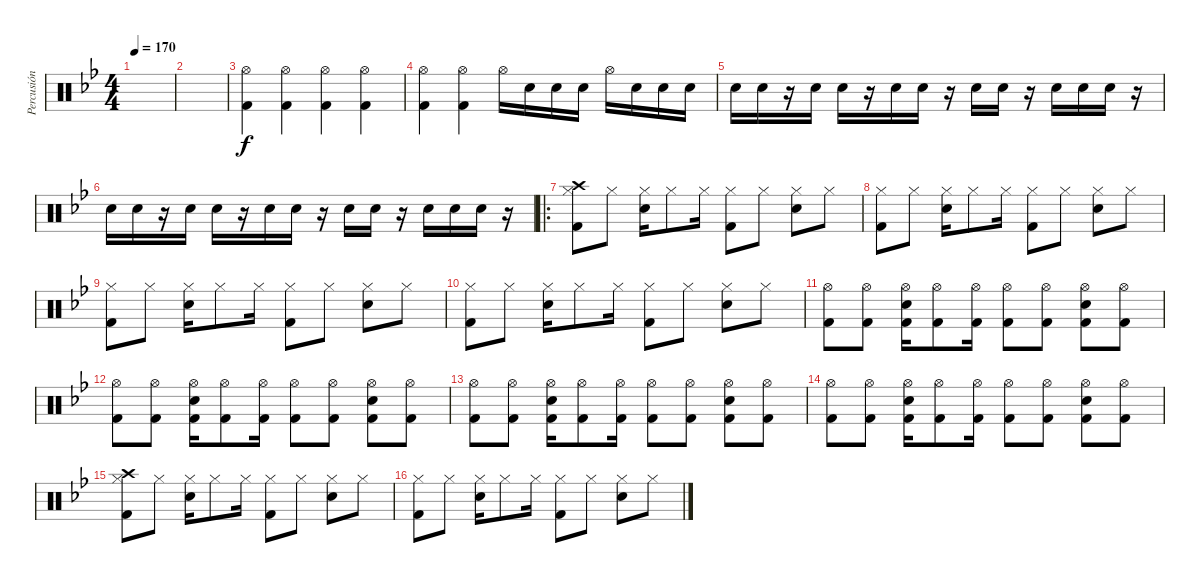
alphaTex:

\track ("Percusión" "Percusión") {instrument percussion}
\staff {score}
\articulation defaults
\ts (4 4)
\tempo 170
\clef neutral
\ks bb
|
|
("Hi-Hat (open)" "Kick (hit) 2").4 ("Hi-Hat (open)" "Kick (hit) 2").4 ("Hi-Hat (open)" "Kick (hit) 2").4 ("Hi-Hat (open)" "Kick (hit) 2").4 |
("Hi-Hat (open)" "Kick (hit) 2").4 ("Hi-Hat (open)" "Kick (hit) 2").4 "Hi-Hat (open)".16 "Electric Snare (hit)".16 "Electric Snare (hit)".16 "Electric Snare (hit)".16 "Hi-Hat (open)".16 "Electric Snare (hit)".16 "Electric Snare (hit)".16 "Electric Snare (hit)".16 |
"Electric Snare (hit)".16 "Electric Snare (hit)".16 r.16 "Electric Snare (hit)".16 "Electric Snare (hit)".16 r.16 "Electric Snare (hit)".16 "Electric Snare (hit)".16 r.16 "Electric Snare (hit)".16 "Electric Snare (hit)".16 r.16 "Electric Snare (hit)".16 "Electric Snare (hit)".16 "Electric Snare (hit)".16 r.16 |
"Electric Snare (hit)".16 "Electric Snare (hit)".16 r.16 "Electric Snare (hit)".16 "Electric Snare (hit)".16 r.16 "Electric Snare (hit)".16 "Electric Snare (hit)".16 r.16 "Electric Snare (hit)".16 "Electric Snare (hit)".16 r.16 "Electric Snare (hit)".16 "Electric Snare (hit)".16 "Electric Snare (hit)".16 r.16 |
\ro
("Crash high (hit)" "Hi-Hat (closed)" "Kick (hit) 2").8 "Hi-Hat (closed)".8 ("Electric Snare (hit)" "Hi-Hat (closed)").16 "Hi-Hat (closed)".8 "Hi-Hat (closed)".16 ("Hi-Hat (closed)" "Kick (hit) 2").8 "Hi-Hat (closed)".8 ("Electric Snare (hit)" "Hi-Hat (closed)").8 "Hi-Hat (closed)".8 |
("Hi-Hat (closed)" "Kick (hit) 2").8 "Hi-Hat (closed)".8 ("Electric Snare (hit)" "Hi-Hat (closed)").16 "Hi-Hat (closed)".8 "Hi-Hat (closed)".16 ("Hi-Hat (closed)" "Kick (hit) 2").8 "Hi-Hat (closed)".8 ("Electric Snare (hit)" "Hi-Hat (closed)").8 "Hi-Hat (closed)".8 |
("Hi-Hat (closed)" "Kick (hit) 2").8 "Hi-Hat (closed)".8 ("Electric Snare (hit)" "Hi-Hat (closed)").16 "Hi-Hat (closed)".8 "Hi-Hat (closed)".16 ("Hi-Hat (closed)" "Kick (hit) 2").8 "Hi-Hat (closed)".8 ("Electric Snare (hit)" "Hi-Hat (closed)").8 "Hi-Hat (closed)".8 |
("Hi-Hat (closed)" "Kick (hit) 2").8 "Hi-Hat (closed)".8 ("Electric Snare (hit)" "Hi-Hat (closed)").16 "Hi-Hat (closed)".8 "Hi-Hat (closed)".16 ("Hi-Hat (closed)" "Kick (hit) 2").8 "Hi-Hat (closed)".8 ("Electric Snare (hit)" "Hi-Hat (closed)").8 "Hi-Hat (closed)".8 |
("Hi-Hat (open)" "Kick (hit) 2").8 ("Hi-Hat (open)" "Kick (hit) 2").8 ("Electric Snare (hit)" "Hi-Hat (open)" "Kick (hit) 2").16 ("Hi-Hat (open)" "Kick (hit) 2").8 ("Hi-Hat (open)" "Kick (hit) 2").16 ("Hi-Hat (open)" "Kick (hit) 2").8 ("Hi-Hat (open)" "Kick (hit) 2").8 ("Electric Snare (hit)" "Hi-Hat (open)" "Kick (hit) 2").8 ("Hi-Hat (open)" "Kick (hit) 2").8 |
("Hi-Hat (open)" "Kick (hit) 2").8 ("Hi-Hat (open)" "Kick (hit) 2").8 ("Electric Snare (hit)" "Hi-Hat (open)" "Kick (hit) 2").16 ("Hi-Hat (open)" "Kick (hit) 2").8 ("Hi-Hat (open)" "Kick (hit) 2").16 ("Hi-Hat (open)" "Kick (hit) 2").8 ("Hi-Hat (open)" "Kick (hit) 2").8 ("Electric Snare (hit)" "Hi-Hat (open)" "Kick (hit) 2").8 ("Hi-Hat (open)" "Kick (hit) 2").8 |
("Hi-Hat (open)" "Kick (hit) 2").8 ("Hi-Hat (open)" "Kick (hit) 2").8 ("Electric Snare (hit)" "Hi-Hat (open)" "Kick (hit) 2").16 ("Hi-Hat (open)" "Kick (hit) 2").8 ("Hi-Hat (open)" "Kick (hit) 2").16 ("Hi-Hat (open)" "Kick (hit) 2").8 ("Hi-Hat (open)" "Kick (hit) 2").8 ("Electric Snare (hit)" "Hi-Hat (open)" "Kick (hit) 2").8 ("Hi-Hat (open)" "Kick (hit) 2").8 |
("Hi-Hat (open)" "Kick (hit) 2").8 ("Hi-Hat (open)" "Kick (hit) 2").8 ("Electric Snare (hit)" "Hi-Hat (open)" "Kick (hit) 2").16 ("Hi-Hat (open)" "Kick (hit) 2").8 ("Hi-Hat (open)" "Kick (hit) 2").16 ("Hi-Hat (open)" "Kick (hit) 2").8 ("Hi-Hat (open)" "Kick (hit) 2").8 ("Electric Snare (hit)" "Hi-Hat (open)" "Kick (hit) 2").8 ("Hi-Hat (open)" "Kick (hit) 2").8 |
("Crash high (hit)" "Hi-Hat (closed)" "Kick (hit) 2").8 "Hi-Hat (closed)".8 ("Electric Snare (hit)" "Hi-Hat (closed)").16 "Hi-Hat (closed)".8 "Hi-Hat (closed)".16 ("Hi-Hat (closed)" "Kick (hit) 2").8 "Hi-Hat (closed)".8 ("Electric Snare (hit)" "Hi-Hat (closed)").8 "Hi-Hat (closed)".8 |
("Hi-Hat (closed)" "Kick (hit) 2").8 "Hi-Hat (closed)".8 ("Electric Snare (hit)" "Hi-Hat (closed)").16 "Hi-Hat (closed)".8 "Hi-Hat (closed)".16 ("Hi-Hat (closed)" "Kick (hit) 2").8 "Hi-Hat (closed)".8 ("Electric Snare (hit)" "Hi-Hat (closed)").8 "Hi-Hat (closed)".8
